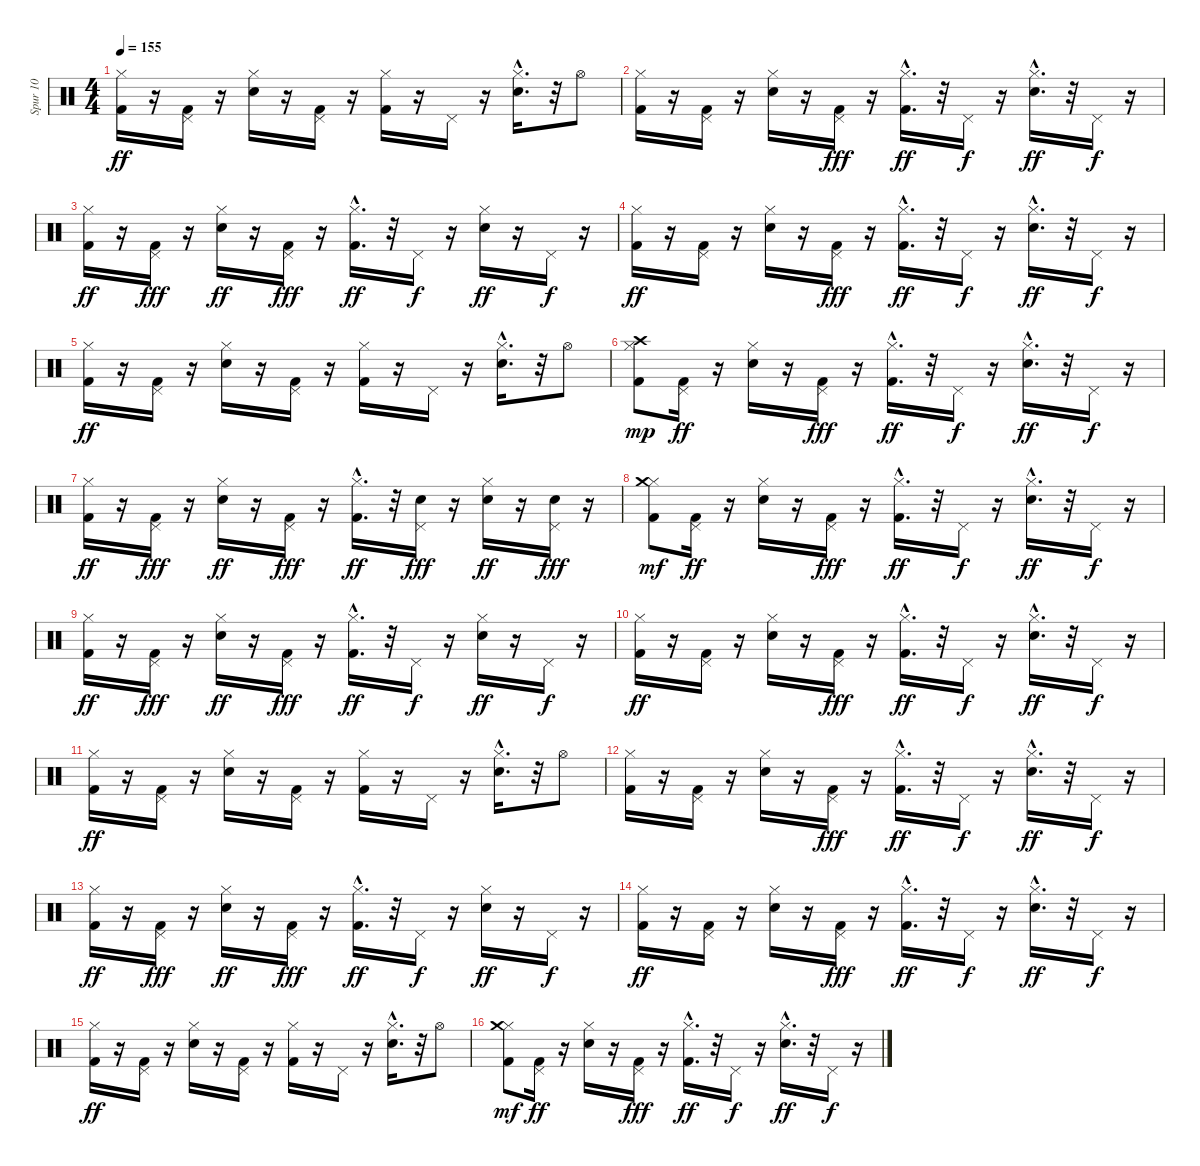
\track ("Spur 10" "Spur 10") {instrument percussion}
\staff {score}
\articulation defaults
\ts (4 4)
\tempo 155
\clef neutral
\ks c
("Kick (hit) 2" "Hi-Hat (closed)").16{dy ff} r.16 ("Kick (hit) 2" "Pedal Hi-Hat (hit)").16 r.16 ("Snare (hit) 2" "Hi-Hat (closed)").16 r.16 ("Kick (hit) 2" "Pedal Hi-Hat (hit)").16 r.16 ("Kick (hit) 2" "Hi-Hat (closed)").16 r.16 "Pedal Hi-Hat (hit)".16 r.16 ("Snare (hit) 2"{hac} "Hi-Hat (closed)").16{d} r.32 "Hi-Hat (open)".8 |
("Kick (hit) 2" "Hi-Hat (closed)").16 r.16 ("Kick (hit) 2" "Pedal Hi-Hat (hit)").16 r.16 ("Snare (hit) 2" "Hi-Hat (closed)").16 r.16 ("Kick (hit) 2" "Pedal Hi-Hat (hit)").16{dy fff} r.16 ("Kick (hit) 2"{hac} "Hi-Hat (closed)").16{d dy ff} r.32 "Pedal Hi-Hat (hit)".16{dy f} r.16 ("Snare (hit) 2"{hac} "Hi-Hat (closed)").16{d dy ff} r.32 "Pedal Hi-Hat (hit)".16{dy f} r.16 |
("Kick (hit) 2" "Hi-Hat (closed)").16{dy ff} r.16 ("Kick (hit) 2" "Pedal Hi-Hat (hit)").16{dy fff} r.16 ("Snare (hit) 2" "Hi-Hat (closed)").16{dy ff} r.16 ("Kick (hit) 2" "Pedal Hi-Hat (hit)").16{dy fff} r.16 ("Kick (hit) 2"{hac} "Hi-Hat (closed)").16{d dy ff} r.32 "Pedal Hi-Hat (hit)".16{dy f} r.16 ("Snare (hit) 2" "Hi-Hat (closed)").16{dy ff} r.16 "Pedal Hi-Hat (hit)".16{dy f} r.16 |
("Kick (hit) 2" "Hi-Hat (closed)").16{dy ff} r.16 ("Kick (hit) 2" "Pedal Hi-Hat (hit)").16 r.16 ("Snare (hit) 2" "Hi-Hat (closed)").16 r.16 ("Kick (hit) 2" "Pedal Hi-Hat (hit)").16{dy fff} r.16 ("Kick (hit) 2"{hac} "Hi-Hat (closed)").16{d dy ff} r.32 "Pedal Hi-Hat (hit)".16{dy f} r.16 ("Snare (hit) 2"{hac} "Hi-Hat (closed)").16{d dy ff} r.32 "Pedal Hi-Hat (hit)".16{dy f} r.16 |
("Kick (hit) 2" "Hi-Hat (closed)").16{dy ff} r.16 ("Kick (hit) 2" "Pedal Hi-Hat (hit)").16 r.16 ("Snare (hit) 2" "Hi-Hat (closed)").16 r.16 ("Kick (hit) 2" "Pedal Hi-Hat (hit)").16 r.16 ("Kick (hit) 2" "Hi-Hat (closed)").16 r.16 "Pedal Hi-Hat (hit)".16 r.16 ("Snare (hit) 2"{hac} "Hi-Hat (closed)").16{d} r.32 "Hi-Hat (open)".8 |
("Kick (hit) 2" "Hi-Hat (closed)" "Crash high (hit)").8{dy mp} ("Kick (hit) 2" "Pedal Hi-Hat (hit)").16{dy ff} r.16 ("Snare (hit) 2" "Hi-Hat (closed)").16 r.16 ("Kick (hit) 2" "Pedal Hi-Hat (hit)").16{dy fff} r.16 ("Kick (hit) 2"{hac} "Hi-Hat (closed)").16{d dy ff} r.32 "Pedal Hi-Hat (hit)".16{dy f} r.16 ("Snare (hit) 2"{hac} "Hi-Hat (closed)").16{d dy ff} r.32 "Pedal Hi-Hat (hit)".16{dy f} r.16 |
("Kick (hit) 2" "Hi-Hat (closed)").16{dy ff} r.16 ("Kick (hit) 2" "Pedal Hi-Hat (hit)").16{dy fff} r.16 ("Snare (hit) 2" "Hi-Hat (closed)").16{dy ff} r.16 ("Kick (hit) 2" "Pedal Hi-Hat (hit)").16{dy fff} r.16 ("Kick (hit) 2"{hac} "Hi-Hat (closed)").16{d dy ff} r.32 ("Pedal Hi-Hat (hit)" "Snare (hit) 2").16{dy fff} r.16 ("Snare (hit) 2" "Hi-Hat (closed)").16{dy ff} r.16 ("Pedal Hi-Hat (hit)" "Snare (hit) 2").16{dy fff} r.16 |
("Kick (hit) 2" "Hi-Hat (closed)" "Crash medium (hit)").8{dy mf} ("Kick (hit) 2" "Pedal Hi-Hat (hit)").16{dy ff} r.16 ("Snare (hit) 2" "Hi-Hat (closed)").16 r.16 ("Kick (hit) 2" "Pedal Hi-Hat (hit)").16{dy fff} r.16 ("Kick (hit) 2"{hac} "Hi-Hat (closed)").16{d dy ff} r.32 "Pedal Hi-Hat (hit)".16{dy f} r.16 ("Snare (hit) 2"{hac} "Hi-Hat (closed)").16{d dy ff} r.32 "Pedal Hi-Hat (hit)".16{dy f} r.16 |
("Kick (hit) 2" "Hi-Hat (closed)").16{dy ff} r.16 ("Kick (hit) 2" "Pedal Hi-Hat (hit)").16{dy fff} r.16 ("Snare (hit) 2" "Hi-Hat (closed)").16{dy ff} r.16 ("Kick (hit) 2" "Pedal Hi-Hat (hit)").16{dy fff} r.16 ("Kick (hit) 2"{hac} "Hi-Hat (closed)").16{d dy ff} r.32 "Pedal Hi-Hat (hit)".16{dy f} r.16 ("Snare (hit) 2" "Hi-Hat (closed)").16{dy ff} r.16 "Pedal Hi-Hat (hit)".16{dy f} r.16 |
("Kick (hit) 2" "Hi-Hat (closed)").16{dy ff} r.16 ("Kick (hit) 2" "Pedal Hi-Hat (hit)").16 r.16 ("Snare (hit) 2" "Hi-Hat (closed)").16 r.16 ("Kick (hit) 2" "Pedal Hi-Hat (hit)").16{dy fff} r.16 ("Kick (hit) 2"{hac} "Hi-Hat (closed)").16{d dy ff} r.32 "Pedal Hi-Hat (hit)".16{dy f} r.16 ("Snare (hit) 2"{hac} "Hi-Hat (closed)").16{d dy ff} r.32 "Pedal Hi-Hat (hit)".16{dy f} r.16 |
("Kick (hit) 2" "Hi-Hat (closed)").16{dy ff} r.16 ("Kick (hit) 2" "Pedal Hi-Hat (hit)").16 r.16 ("Snare (hit) 2" "Hi-Hat (closed)").16 r.16 ("Kick (hit) 2" "Pedal Hi-Hat (hit)").16 r.16 ("Kick (hit) 2" "Hi-Hat (closed)").16 r.16 "Pedal Hi-Hat (hit)".16 r.16 ("Snare (hit) 2"{hac} "Hi-Hat (closed)").16{d} r.32 "Hi-Hat (open)".8 |
("Kick (hit) 2" "Hi-Hat (closed)").16 r.16 ("Kick (hit) 2" "Pedal Hi-Hat (hit)").16 r.16 ("Snare (hit) 2" "Hi-Hat (closed)").16 r.16 ("Kick (hit) 2" "Pedal Hi-Hat (hit)").16{dy fff} r.16 ("Kick (hit) 2"{hac} "Hi-Hat (closed)").16{d dy ff} r.32 "Pedal Hi-Hat (hit)".16{dy f} r.16 ("Snare (hit) 2"{hac} "Hi-Hat (closed)").16{d dy ff} r.32 "Pedal Hi-Hat (hit)".16{dy f} r.16 |
("Kick (hit) 2" "Hi-Hat (closed)").16{dy ff} r.16 ("Kick (hit) 2" "Pedal Hi-Hat (hit)").16{dy fff} r.16 ("Snare (hit) 2" "Hi-Hat (closed)").16{dy ff} r.16 ("Kick (hit) 2" "Pedal Hi-Hat (hit)").16{dy fff} r.16 ("Kick (hit) 2"{hac} "Hi-Hat (closed)").16{d dy ff} r.32 "Pedal Hi-Hat (hit)".16{dy f} r.16 ("Snare (hit) 2" "Hi-Hat (closed)").16{dy ff} r.16 "Pedal Hi-Hat (hit)".16{dy f} r.16 |
("Kick (hit) 2" "Hi-Hat (closed)").16{dy ff} r.16 ("Kick (hit) 2" "Pedal Hi-Hat (hit)").16 r.16 ("Snare (hit) 2" "Hi-Hat (closed)").16 r.16 ("Kick (hit) 2" "Pedal Hi-Hat (hit)").16{dy fff} r.16 ("Kick (hit) 2"{hac} "Hi-Hat (closed)").16{d dy ff} r.32 "Pedal Hi-Hat (hit)".16{dy f} r.16 ("Snare (hit) 2"{hac} "Hi-Hat (closed)").16{d dy ff} r.32 "Pedal Hi-Hat (hit)".16{dy f} r.16 |
("Kick (hit) 2" "Hi-Hat (closed)").16{dy ff} r.16 ("Kick (hit) 2" "Pedal Hi-Hat (hit)").16 r.16 ("Snare (hit) 2" "Hi-Hat (closed)").16 r.16 ("Kick (hit) 2" "Pedal Hi-Hat (hit)").16 r.16 ("Kick (hit) 2" "Hi-Hat (closed)").16 r.16 "Pedal Hi-Hat (hit)".16 r.16 ("Snare (hit) 2"{hac} "Hi-Hat (closed)").16{d} r.32 "Hi-Hat (open)".8 |
("Kick (hit) 2" "Hi-Hat (closed)" "Crash medium (hit)").8{dy mf} ("Kick (hit) 2" "Pedal Hi-Hat (hit)").16{dy ff} r.16 ("Snare (hit) 2" "Hi-Hat (closed)").16 r.16 ("Kick (hit) 2" "Pedal Hi-Hat (hit)").16{dy fff} r.16 ("Kick (hit) 2"{hac} "Hi-Hat (closed)").16{d dy ff} r.32 "Pedal Hi-Hat (hit)".16{dy f} r.16 ("Snare (hit) 2"{hac} "Hi-Hat (closed)").16{d dy ff} r.32 "Pedal Hi-Hat (hit)".16{dy f} r.16
